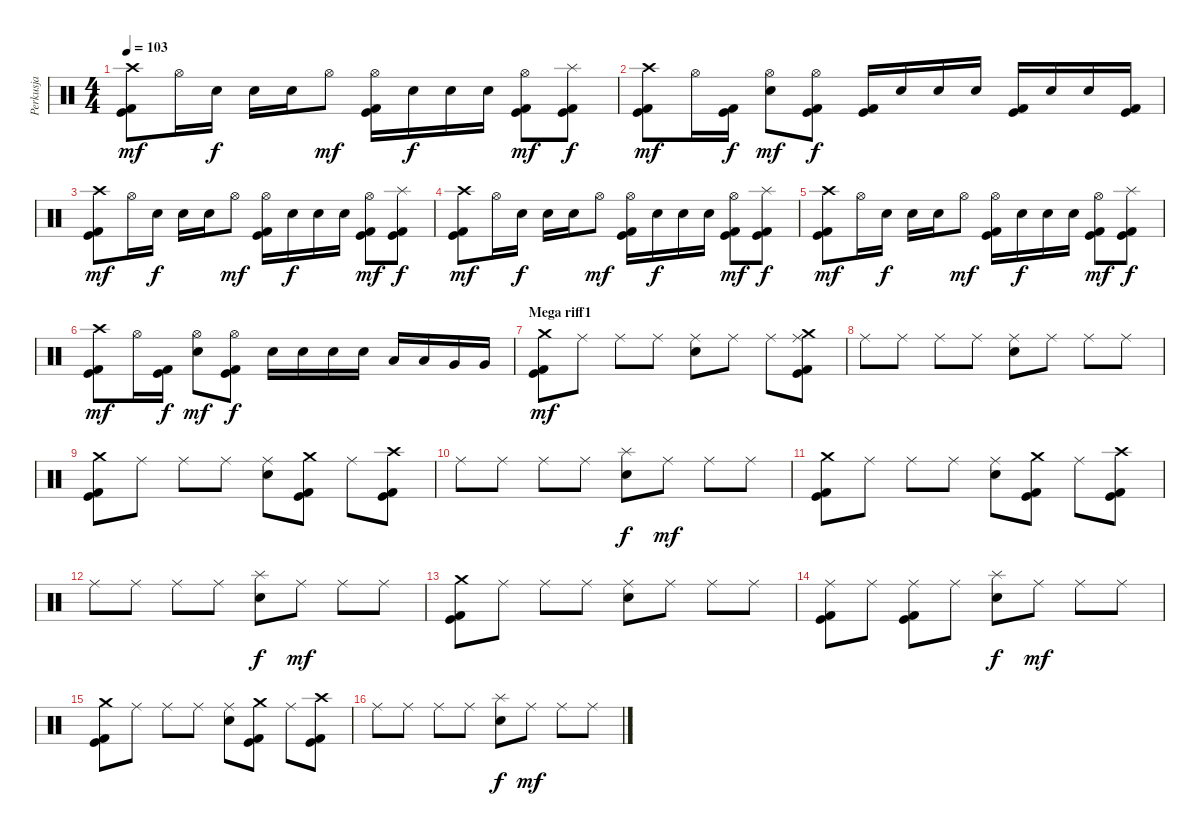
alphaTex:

\track ("Perkusja" "Perkusja") {instrument percussion}
\staff {score}
\articulation defaults
\ts (4 4)
\tempo 103
\clef neutral
\ks c
("Kick (hit) 2" "Kick (hit)" "Crash high (hit)").8{dy mf} "Hi-Hat (open)".16 "Snare (hit) 2".16{dy f} "Snare (hit) 2".16 "Snare (hit) 2".16 "Hi-Hat (open)".8{dy mf} ("Kick (hit) 2" "Kick (hit)" "Hi-Hat (open)").16 "Snare (hit) 2".16{dy f} "Snare (hit) 2".16 "Snare (hit) 2".16 ("Kick (hit) 2" "Kick (hit)" "Hi-Hat (open)").8{dy mf} ("Kick (hit)" "Kick (hit) 2" "Splash (hit)").8{dy f} |
("Kick (hit) 2" "Kick (hit)" "Crash high (hit)").8{dy mf} "Hi-Hat (open)".16 ("Kick (hit) 2" "Kick (hit)").16{dy f} ("Snare (hit) 2" "Hi-Hat (open)").8{dy mf} ("Kick (hit) 2" "Kick (hit)" "Hi-Hat (open)").8{dy f} ("Kick (hit) 2" "Kick (hit)").16 "Snare (hit) 2".16 "Snare (hit) 2".16 "Snare (hit) 2".16 ("Kick (hit)" "Kick (hit) 2").16 "Snare (hit) 2".16 "Snare (hit) 2".16 ("Kick (hit) 2" "Kick (hit)").16 |
("Kick (hit) 2" "Kick (hit)" "Crash high (hit)").8{dy mf} "Hi-Hat (open)".16 "Snare (hit) 2".16{dy f} "Snare (hit) 2".16 "Snare (hit) 2".16 "Hi-Hat (open)".8{dy mf} ("Kick (hit) 2" "Kick (hit)" "Hi-Hat (open)").16 "Snare (hit) 2".16{dy f} "Snare (hit) 2".16 "Snare (hit) 2".16 ("Kick (hit) 2" "Kick (hit)" "Hi-Hat (open)").8{dy mf} ("Kick (hit)" "Kick (hit) 2" "Splash (hit)").8{dy f} |
("Kick (hit) 2" "Kick (hit)" "Crash high (hit)").8{dy mf} "Hi-Hat (open)".16 "Snare (hit) 2".16{dy f} "Snare (hit) 2".16 "Snare (hit) 2".16 "Hi-Hat (open)".8{dy mf} ("Kick (hit) 2" "Kick (hit)" "Hi-Hat (open)").16 "Snare (hit) 2".16{dy f} "Snare (hit) 2".16 "Snare (hit) 2".16 ("Kick (hit) 2" "Kick (hit)" "Hi-Hat (open)").8{dy mf} ("Kick (hit)" "Kick (hit) 2" "Splash (hit)").8{dy f} |
("Kick (hit) 2" "Kick (hit)" "Crash high (hit)").8{dy mf} "Hi-Hat (open)".16 "Snare (hit) 2".16{dy f} "Snare (hit) 2".16 "Snare (hit) 2".16 "Hi-Hat (open)".8{dy mf} ("Kick (hit) 2" "Kick (hit)" "Hi-Hat (open)").16 "Snare (hit) 2".16{dy f} "Snare (hit) 2".16 "Snare (hit) 2".16 ("Kick (hit) 2" "Kick (hit)" "Hi-Hat (open)").8{dy mf} ("Kick (hit)" "Kick (hit) 2" "Splash (hit)").8{dy f} |
("Kick (hit) 2" "Kick (hit)" "Crash high (hit)").8{dy mf} "Hi-Hat (open)".16 ("Kick (hit) 2" "Kick (hit)").16{dy f} ("Snare (hit) 2" "Hi-Hat (open)").8{dy mf} ("Kick (hit) 2" "Kick (hit)" "Hi-Hat (open)").8{dy f} "Snare (hit) 2".16 "Snare (hit) 2".16 "Snare (hit) 2".16 "Snare (hit) 2".16 "Low Tom (hit)".16 "Low Tom (hit)".16 "Very Low Tom (hit)".16 "Very Low Tom (hit)".16 |
\section ("" "Mega riff1")
("Kick (hit) 2" "Kick (hit)" "Crash medium (hit)").8{dy mf} "Ride (middle)".8 "Ride (middle)".8 "Ride (middle)".8 ("Snare (hit) 2" "Ride (middle)").8 "Ride (middle)".8 "Ride (middle)".8 ("Kick (hit) 2" "Kick (hit)" "Ride (middle)" "Crash medium (hit)").8 |
"Ride (middle)".8 "Ride (middle)".8 "Ride (middle)".8 "Ride (middle)".8 ("Snare (hit) 2" "Ride (middle)").8 "Ride (middle)".8 "Ride (middle)".8 "Ride (middle)".8 |
("Kick (hit) 2" "Kick (hit)" "Crash medium (hit)").8 "Ride (middle)".8 "Ride (middle)".8 "Ride (middle)".8 ("Snare (hit) 2" "Ride (middle)").8 ("Kick (hit) 2" "Kick (hit)" "Crash medium (hit)").8 "Ride (middle)".8 ("Kick (hit) 2" "Kick (hit)" "Crash high (hit)").8 |
"Ride (middle)".8 "Ride (middle)".8 "Ride (middle)".8 "Ride (middle)".8 ("Snare (hit) 2" "Splash (hit)").8{dy f} "Ride (middle)".8{dy mf} "Ride (middle)".8 "Ride (middle)".8 |
("Kick (hit) 2" "Kick (hit)" "Crash medium (hit)").8 "Ride (middle)".8 "Ride (middle)".8 "Ride (middle)".8 ("Snare (hit) 2" "Ride (middle)").8 ("Kick (hit) 2" "Kick (hit)" "Crash medium (hit)").8 "Ride (middle)".8 ("Kick (hit) 2" "Kick (hit)" "Crash high (hit)").8 |
"Ride (middle)".8 "Ride (middle)".8 "Ride (middle)".8 "Ride (middle)".8 ("Snare (hit) 2" "Splash (hit)").8{dy f} "Ride (middle)".8{dy mf} "Ride (middle)".8 "Ride (middle)".8 |
("Kick (hit) 2" "Kick (hit)" "Crash medium (hit)").8 "Ride (middle)".8 "Ride (middle)".8 "Ride (middle)".8 ("Snare (hit) 2" "Ride (middle)").8 "Ride (middle)".8 "Ride (middle)".8 "Ride (middle)".8 |
("Kick (hit) 2" "Kick (hit)" "Ride (middle)").8 "Ride (middle)".8 ("Kick (hit)" "Kick (hit) 2" "Ride (middle)").8 "Ride (middle)".8 ("Snare (hit) 2" "Splash (hit)").8{dy f} "Ride (middle)".8{dy mf} "Ride (middle)".8 "Ride (middle)".8 |
("Kick (hit) 2" "Kick (hit)" "Crash medium (hit)").8 "Ride (middle)".8 "Ride (middle)".8 "Ride (middle)".8 ("Snare (hit) 2" "Ride (middle)").8 ("Kick (hit) 2" "Kick (hit)" "Crash medium (hit)").8 "Ride (middle)".8 ("Kick (hit) 2" "Kick (hit)" "Crash high (hit)").8 |
"Ride (middle)".8 "Ride (middle)".8 "Ride (middle)".8 "Ride (middle)".8 ("Snare (hit) 2" "Splash (hit)").8{dy f} "Ride (middle)".8{dy mf} "Ride (middle)".8 "Ride (middle)".8
